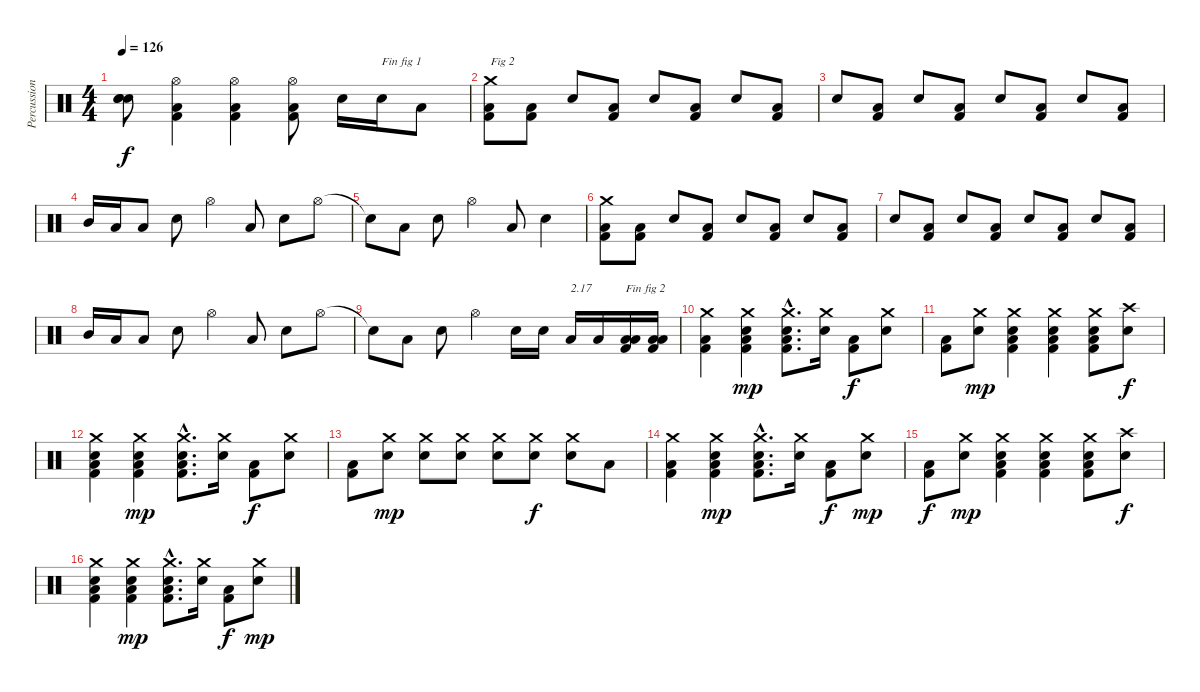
\track ("Percussions" "Percussion") {instrument percussion}
\staff {score}
\articulation defaults
\ts (4 4)
\tempo 126
\clef neutral
\ks c
("Snare (hit)"{t} "Snare (hit)"{t} "Snare (hit)"{t}).8{dy f} ("Kick (hit) 2" "Low Floor Tom (hit)" "Hi-Hat (open)").4 ("Kick (hit) 2" "Low Floor Tom (hit)" "Hi-Hat (open)").4 ("Kick (hit) 2" "Low Floor Tom (hit)" "Hi-Hat (open)").8 "Snare (hit) 2".16 "Snare (hit) 2".16{txt "Fin fig 1"} "Low Tom (hit)".8 |
("Kick (hit) 2" "Low Floor Tom (hit)" "Crash medium (hit)").8{txt "Fig 2"} ("Kick (hit) 2" "Low Floor Tom (hit)").8 "Snare (hit) 2".8 ("Kick (hit) 2" "Low Floor Tom (hit)").8 "Snare (hit) 2".8 ("Kick (hit) 2" "Low Floor Tom (hit)").8 "Snare (hit) 2".8 ("Kick (hit) 2" "Low Floor Tom (hit)").8 |
"Snare (hit) 2".8 ("Kick (hit) 2" "Low Floor Tom (hit)").8 "Snare (hit) 2".8 ("Kick (hit) 2" "Low Floor Tom (hit)").8 "Snare (hit) 2".8 ("Kick (hit) 2" "Low Floor Tom (hit)").8 "Snare (hit) 2".8 ("Kick (hit) 2" "Low Floor Tom (hit)").8 |
"Mid Tom (hit)".16 "Low Tom (hit)".16 "Low Tom (hit)".8 "Snare (hit) 2".8 "Hi-Hat (open)".4 "Low Tom (hit)".8 "Snare (hit) 2".8 "Hi-Hat (open)".8 |
"Snare (hit)"{t}.8 "Low Tom (hit)".8 "Snare (hit) 2".8 "Hi-Hat (open)".4 "Low Tom (hit)".8 "Snare (hit) 2".4 |
("Kick (hit) 2" "Low Floor Tom (hit)" "Crash medium (hit)").8 ("Kick (hit) 2" "Low Floor Tom (hit)").8 "Snare (hit) 2".8 ("Kick (hit) 2" "Low Floor Tom (hit)").8 "Snare (hit) 2".8 ("Kick (hit) 2" "Low Floor Tom (hit)").8 "Snare (hit) 2".8 ("Kick (hit) 2" "Low Floor Tom (hit)").8 |
"Snare (hit) 2".8 ("Kick (hit) 2" "Low Floor Tom (hit)").8 "Snare (hit) 2".8 ("Kick (hit) 2" "Low Floor Tom (hit)").8 "Snare (hit) 2".8 ("Kick (hit) 2" "Low Floor Tom (hit)").8 "Snare (hit) 2".8 ("Kick (hit) 2" "Low Floor Tom (hit)").8 |
"Mid Tom (hit)".16 "Low Tom (hit)".16 "Low Tom (hit)".8 "Snare (hit) 2".8 "Hi-Hat (open)".4 "Low Tom (hit)".8 "Snare (hit) 2".8 "Hi-Hat (open)".8 |
"Snare (hit)"{t}.8 "Low Tom (hit)".8 "Snare (hit) 2".8 "Hi-Hat (open)".4 "Snare (hit) 2".16 "Snare (hit) 2".16 "Low Tom (hit)".16{txt "2.17"} "Low Tom (hit)".16 ("Kick (hit) 2" "Low Floor Tom (hit)" "Low Tom (hit)").16{txt "Fin fig 2"} ("Kick (hit) 2" "Low Floor Tom (hit)" "Low Tom (hit)").16 |
("Kick (hit) 2" "Low Floor Tom (hit)" "Crash medium (hit)").4 ("Kick (hit) 2" "Low Floor Tom (hit)" "Snare (hit) 2" "Crash medium (hit)").4{dy mp} ("Kick (hit) 2"{hac} "Low Floor Tom (hit)"{hac} "Snare (hit) 2"{hac} "Crash medium (hit)"{hac}).8{d} ("Snare (hit) 2" "Crash medium (hit)").16 ("Kick (hit) 2" "Low Floor Tom (hit)").8{dy f} ("Snare (hit) 2" "Crash medium (hit)").8 |
("Kick (hit) 2" "Low Floor Tom (hit)").8 ("Snare (hit) 2" "Crash medium (hit)").8{dy mp} ("Kick (hit) 2" "Low Floor Tom (hit)" "Snare (hit) 2" "Crash medium (hit)").4 ("Kick (hit) 2" "Low Floor Tom (hit)" "Snare (hit) 2" "Crash medium (hit)").4 ("Kick (hit) 2" "Low Floor Tom (hit)" "Snare (hit) 2" "Crash medium (hit)").8 ("Snare (hit) 2" "Crash high (hit)").8{dy f} |
("Kick (hit) 2" "Low Floor Tom (hit)" "Snare (hit) 2" "Crash medium (hit)").4 ("Kick (hit) 2" "Low Floor Tom (hit)" "Snare (hit) 2" "Crash medium (hit)").4{dy mp} ("Kick (hit) 2"{hac} "Low Floor Tom (hit)"{hac} "Snare (hit) 2"{hac} "Crash medium (hit)"{hac}).8{d} ("Snare (hit) 2" "Crash medium (hit)").16 ("Kick (hit) 2" "Low Floor Tom (hit)").8{dy f} ("Snare (hit) 2" "Crash medium (hit)").8 |
("Kick (hit) 2" "Low Floor Tom (hit)").8 ("Snare (hit) 2" "Crash medium (hit)").8{dy mp} ("Snare (hit) 2" "Crash medium (hit)").8 ("Snare (hit) 2" "Crash medium (hit)").8 ("Snare (hit) 2" "Crash medium (hit)").8 ("Snare (hit) 2" "Crash medium (hit)").8{dy f} ("Snare (hit) 2" "Crash medium (hit)").8 "Low Tom (hit)".8 |
("Kick (hit) 2" "Low Floor Tom (hit)" "Crash medium (hit)").4 ("Kick (hit) 2" "Low Floor Tom (hit)" "Snare (hit) 2" "Crash medium (hit)").4{dy mp} ("Kick (hit) 2"{hac} "Low Floor Tom (hit)"{hac} "Snare (hit) 2"{hac} "Crash medium (hit)"{hac}).8{d} ("Snare (hit) 2" "Crash medium (hit)").16 ("Kick (hit) 2" "Low Floor Tom (hit)").8{dy f} ("Snare (hit) 2" "Crash medium (hit)").8{dy mp} |
("Kick (hit) 2" "Low Floor Tom (hit)").8{dy f} ("Snare (hit) 2" "Crash medium (hit)").8{dy mp} ("Kick (hit) 2" "Low Floor Tom (hit)" "Snare (hit) 2" "Crash medium (hit)").4 ("Kick (hit) 2" "Low Floor Tom (hit)" "Snare (hit) 2" "Crash medium (hit)").4 ("Kick (hit) 2" "Low Floor Tom (hit)" "Snare (hit) 2" "Crash medium (hit)").8 ("Snare (hit) 2" "Crash high (hit)").8{dy f} |
("Kick (hit) 2" "Low Floor Tom (hit)" "Snare (hit) 2" "Crash medium (hit)").4 ("Kick (hit) 2" "Low Floor Tom (hit)" "Snare (hit) 2" "Crash medium (hit)").4{dy mp} ("Kick (hit) 2"{hac} "Low Floor Tom (hit)"{hac} "Snare (hit) 2"{hac} "Crash medium (hit)"{hac}).8{d} ("Snare (hit) 2" "Crash medium (hit)").16 ("Kick (hit) 2" "Low Floor Tom (hit)").8{dy f} ("Snare (hit) 2" "Crash medium (hit)").8{dy mp}
